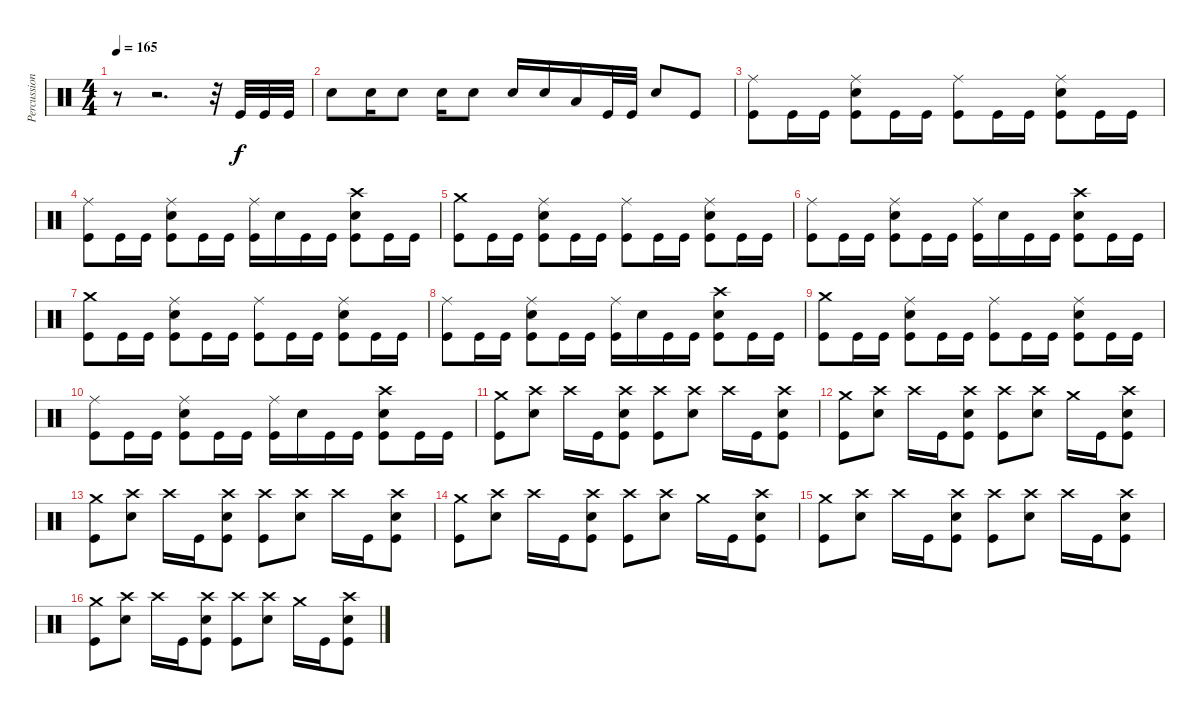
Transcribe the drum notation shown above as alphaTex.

\track ("Percussion" "Percussion") {instrument percussion}
\staff {score}
\articulation defaults
\ts (4 4)
\tempo 165
\clef neutral
\ks c
r.8{dy f} r.2{d} r.32 "Kick (hit)".32 "Kick (hit)".32 "Kick (hit)".32 |
"Snare (hit) 2".8 "Snare (hit) 2".16 "Snare (hit) 2".8 "Snare (hit) 2".16 "Snare (hit) 2".8 "Snare (hit) 2".16 "Snare (hit) 2".16 "Low Tom (hit)".16 "Kick (hit)".32 "Kick (hit)".32 "Electric Snare (hit)".8 "Kick (hit)".8 |
("Ride (middle)" "Kick (hit)").8 "Kick (hit)".16 "Kick (hit)".16 ("Ride (middle)" "Snare (hit) 2" "Kick (hit)").8 "Kick (hit)".16 "Kick (hit)".16 ("Ride (middle)" "Kick (hit)").8 "Kick (hit)".16 "Kick (hit)".16 ("Ride (middle)" "Snare (hit) 2" "Kick (hit)").8 "Kick (hit)".16 "Kick (hit)".16 |
("Ride (middle)" "Kick (hit)").8 "Kick (hit)".16 "Kick (hit)".16 ("Ride (middle)" "Snare (hit) 2" "Kick (hit)").8 "Kick (hit)".16 "Kick (hit)".16 ("Ride (middle)" "Kick (hit)").16 "Snare (hit) 2".16 "Kick (hit)".16 "Kick (hit)".16 ("Crash high (hit)" "Snare (hit) 2" "Kick (hit)").8 "Kick (hit)".16 "Kick (hit)".16 |
("Crash medium (hit)" "Kick (hit)").8 "Kick (hit)".16 "Kick (hit)".16 ("Ride (middle)" "Snare (hit) 2" "Kick (hit)").8 "Kick (hit)".16 "Kick (hit)".16 ("Ride (middle)" "Kick (hit)").8 "Kick (hit)".16 "Kick (hit)".16 ("Ride (middle)" "Snare (hit) 2" "Kick (hit)").8 "Kick (hit)".16 "Kick (hit)".16 |
("Ride (middle)" "Kick (hit)").8 "Kick (hit)".16 "Kick (hit)".16 ("Ride (middle)" "Snare (hit) 2" "Kick (hit)").8 "Kick (hit)".16 "Kick (hit)".16 ("Ride (middle)" "Kick (hit)").16 "Snare (hit) 2".16 "Kick (hit)".16 "Kick (hit)".16 ("Crash high (hit)" "Snare (hit) 2" "Kick (hit)").8 "Kick (hit)".16 "Kick (hit)".16 |
("Crash medium (hit)" "Kick (hit)").8 "Kick (hit)".16 "Kick (hit)".16 ("Ride (middle)" "Snare (hit) 2" "Kick (hit)").8 "Kick (hit)".16 "Kick (hit)".16 ("Ride (middle)" "Kick (hit)").8 "Kick (hit)".16 "Kick (hit)".16 ("Ride (middle)" "Snare (hit) 2" "Kick (hit)").8 "Kick (hit)".16 "Kick (hit)".16 |
("Ride (middle)" "Kick (hit)").8 "Kick (hit)".16 "Kick (hit)".16 ("Ride (middle)" "Snare (hit) 2" "Kick (hit)").8 "Kick (hit)".16 "Kick (hit)".16 ("Ride (middle)" "Kick (hit)").16 "Snare (hit) 2".16 "Kick (hit)".16 "Kick (hit)".16 ("Crash high (hit)" "Snare (hit) 2" "Kick (hit)").8 "Kick (hit)".16 "Kick (hit)".16 |
("Crash medium (hit)" "Kick (hit)").8 "Kick (hit)".16 "Kick (hit)".16 ("Ride (middle)" "Snare (hit) 2" "Kick (hit)").8 "Kick (hit)".16 "Kick (hit)".16 ("Ride (middle)" "Kick (hit)").8 "Kick (hit)".16 "Kick (hit)".16 ("Ride (middle)" "Snare (hit) 2" "Kick (hit)").8 "Kick (hit)".16 "Kick (hit)".16 |
("Ride (middle)" "Kick (hit)").8 "Kick (hit)".16 "Kick (hit)".16 ("Ride (middle)" "Snare (hit) 2" "Kick (hit)").8 "Kick (hit)".16 "Kick (hit)".16 ("Ride (middle)" "Kick (hit)").16 "Snare (hit) 2".16 "Kick (hit)".16 "Kick (hit)".16 ("Crash high (hit)" "Snare (hit) 2" "Kick (hit)").8 "Kick (hit)".16 "Kick (hit)".16 |
("Crash medium (hit)" "Kick (hit)").8 ("Crash high (hit)" "Snare (hit) 2").8 "Crash high (hit)".16 "Kick (hit)".16 ("Crash high (hit)" "Snare (hit) 2" "Kick (hit)").8 ("Crash high (hit)" "Kick (hit)").8 ("Crash high (hit)" "Snare (hit) 2").8 "Crash high (hit)".16 "Kick (hit)".16 ("Crash high (hit)" "Snare (hit) 2" "Kick (hit)").8 |
("Crash medium (hit)" "Kick (hit)").8 ("Crash high (hit)" "Snare (hit) 2").8 "Crash high (hit)".16 "Kick (hit)".16 ("Crash high (hit)" "Snare (hit) 2" "Kick (hit)").8 ("Crash high (hit)" "Kick (hit)").8 ("Crash high (hit)" "Snare (hit) 2").8 "Crash medium (hit)".16 "Kick (hit)".16 ("Crash high (hit)" "Snare (hit) 2" "Kick (hit)").8 |
("Crash medium (hit)" "Kick (hit)").8 ("Crash high (hit)" "Snare (hit) 2").8 "Crash high (hit)".16 "Kick (hit)".16 ("Crash high (hit)" "Snare (hit) 2" "Kick (hit)").8 ("Crash high (hit)" "Kick (hit)").8 ("Crash high (hit)" "Snare (hit) 2").8 "Crash high (hit)".16 "Kick (hit)".16 ("Crash high (hit)" "Snare (hit) 2" "Kick (hit)").8 |
("Crash medium (hit)" "Kick (hit)").8 ("Crash high (hit)" "Snare (hit) 2").8 "Crash high (hit)".16 "Kick (hit)".16 ("Crash high (hit)" "Snare (hit) 2" "Kick (hit)").8 ("Crash high (hit)" "Kick (hit)").8 ("Crash high (hit)" "Snare (hit) 2").8 "Crash medium (hit)".16 "Kick (hit)".16 ("Crash high (hit)" "Snare (hit) 2" "Kick (hit)").8 |
("Crash medium (hit)" "Kick (hit)").8 ("Crash high (hit)" "Snare (hit) 2").8 "Crash high (hit)".16 "Kick (hit)".16 ("Crash high (hit)" "Snare (hit) 2" "Kick (hit)").8 ("Crash high (hit)" "Kick (hit)").8 ("Crash high (hit)" "Snare (hit) 2").8 "Crash high (hit)".16 "Kick (hit)".16 ("Crash high (hit)" "Snare (hit) 2" "Kick (hit)").8 |
("Crash medium (hit)" "Kick (hit)").8 ("Crash high (hit)" "Snare (hit) 2").8 "Crash high (hit)".16 "Kick (hit)".16 ("Crash high (hit)" "Snare (hit) 2" "Kick (hit)").8 ("Crash high (hit)" "Kick (hit)").8 ("Crash high (hit)" "Snare (hit) 2").8 "Crash medium (hit)".16 "Kick (hit)".16 ("Crash high (hit)" "Snare (hit) 2" "Kick (hit)").8
